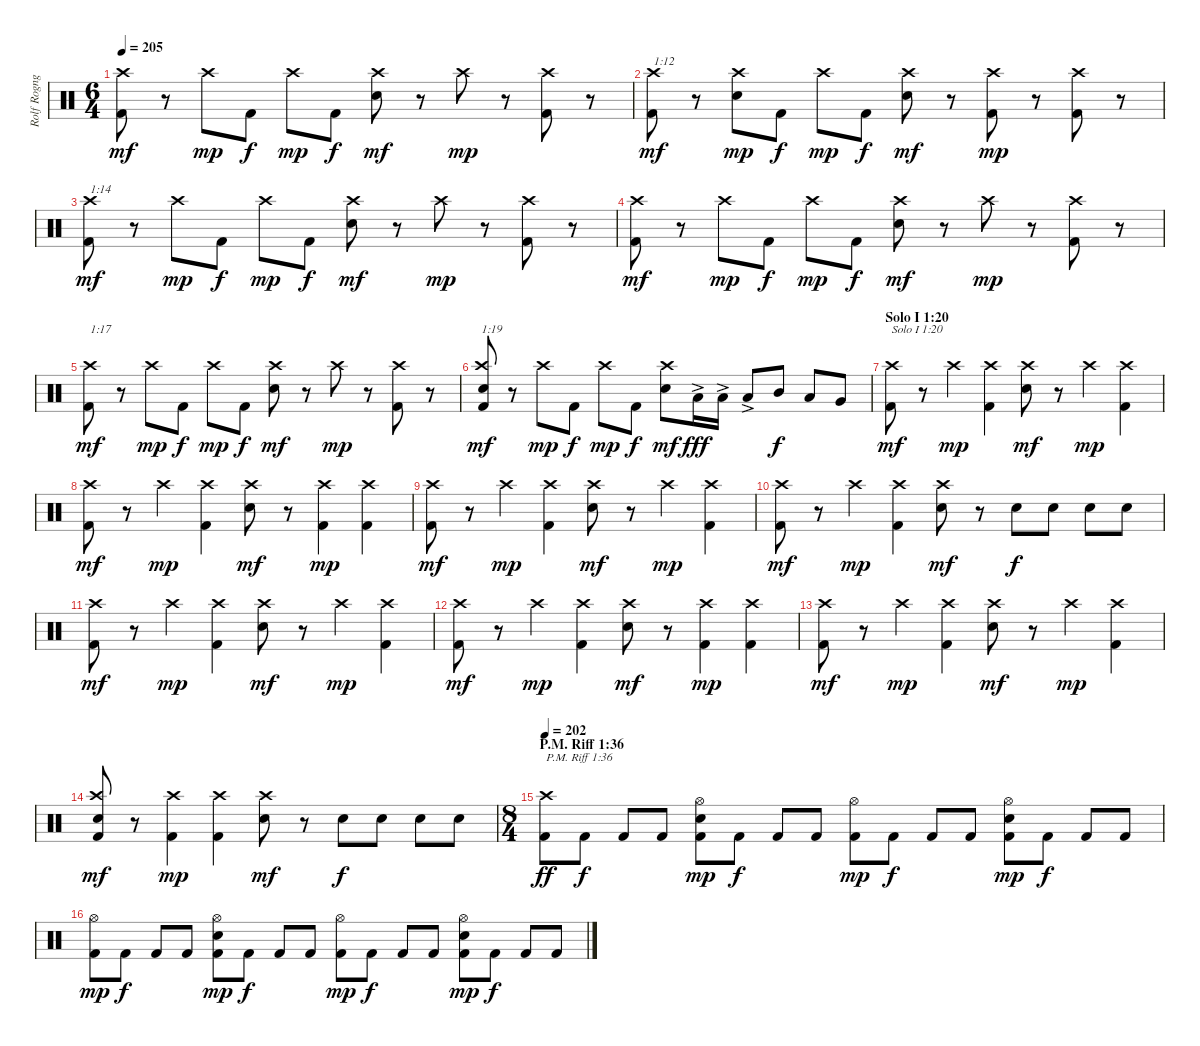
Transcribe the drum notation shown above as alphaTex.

\track ("Rolf Rognguf Hansen" "Rolf Rogng") {instrument percussion}
\staff {score}
\articulation defaults
\ts (6 4)
\tempo 205
\clef neutral
\ks c
("Kick (hit) 2" "Crash high (hit)").8{dy mf} r.8 "Crash high (hit)".8{dy mp} "Kick (hit) 2".8{dy f} "Crash high (hit)".8{dy mp} "Kick (hit) 2".8{dy f} ("Electric Snare (hit)" "Crash high (hit)").8{dy mf} r.8 "Crash high (hit)".8{dy mp} r.8 ("Kick (hit) 2" "Crash high (hit)").8 r.8 |
("Kick (hit) 2" "Crash high (hit)").8{txt "1:12" dy mf} r.8 ("Electric Snare (hit)" "Crash high (hit)").8{dy mp} "Kick (hit) 2".8{dy f} "Crash high (hit)".8{dy mp} "Kick (hit) 2".8{dy f} ("Electric Snare (hit)" "Crash high (hit)").8{dy mf} r.8 ("Kick (hit) 2" "Crash high (hit)").8{dy mp} r.8 ("Kick (hit) 2" "Crash high (hit)").8 r.8 |
("Kick (hit) 2" "Crash high (hit)").8{txt "1:14" dy mf} r.8 "Crash high (hit)".8{dy mp} "Kick (hit) 2".8{dy f} "Crash high (hit)".8{dy mp} "Kick (hit) 2".8{dy f} ("Electric Snare (hit)" "Crash high (hit)").8{dy mf} r.8 "Crash high (hit)".8{dy mp} r.8 ("Kick (hit) 2" "Crash high (hit)").8 r.8 |
("Kick (hit) 2" "Crash high (hit)").8{dy mf} r.8 "Crash high (hit)".8{dy mp} "Kick (hit) 2".8{dy f} "Crash high (hit)".8{dy mp} "Kick (hit) 2".8{dy f} ("Electric Snare (hit)" "Crash high (hit)").8{dy mf} r.8 "Crash high (hit)".8{dy mp} r.8 ("Kick (hit) 2" "Crash high (hit)").8 r.8 |
("Kick (hit) 2" "Crash high (hit)").8{txt "1:17" dy mf} r.8 "Crash high (hit)".8{dy mp} "Kick (hit) 2".8{dy f} "Crash high (hit)".8{dy mp} "Kick (hit) 2".8{dy f} ("Electric Snare (hit)" "Crash high (hit)").8{dy mf} r.8 "Crash high (hit)".8{dy mp} r.8 ("Kick (hit) 2" "Crash high (hit)").8 r.8 |
("Kick (hit) 2" "Electric Snare (hit)" "Crash high (hit)").8{txt "1:19" dy mf} r.8 "Crash high (hit)".8{dy mp} "Kick (hit) 2".8{dy f} "Crash high (hit)".8{dy mp} "Kick (hit) 2".8{dy f} ("Electric Snare (hit)" "Crash high (hit)").8{dy mf} "Low Tom (hit)"{ac}.16{dy fff} "Low Tom (hit)"{ac}.16 "Low Tom (hit)"{ac}.8 "Mid Tom (hit)".8{dy f} "Low Tom (hit)".8 "Very Low Tom (hit)".8 |
\section ("" "Solo I 1:20")
("Kick (hit) 2" "Crash high (hit)").8{txt "Solo I 1:20" dy mf} r.8 "Crash high (hit)".4{dy mp} ("Kick (hit) 2" "Crash high (hit)").4 ("Electric Snare (hit)" "Crash high (hit)").8{dy mf} r.8 "Crash high (hit)".4{dy mp} ("Kick (hit) 2" "Crash high (hit)").4 |
("Kick (hit) 2" "Crash high (hit)").8{dy mf} r.8 "Crash high (hit)".4{dy mp} ("Kick (hit) 2" "Crash high (hit)").4 ("Electric Snare (hit)" "Crash high (hit)").8{dy mf} r.8 ("Kick (hit) 2" "Crash high (hit)").4{dy mp} ("Kick (hit) 2" "Crash high (hit)").4 |
("Kick (hit) 2" "Crash high (hit)").8{dy mf} r.8 "Crash high (hit)".4{dy mp} ("Kick (hit) 2" "Crash high (hit)").4 ("Electric Snare (hit)" "Crash high (hit)").8{dy mf} r.8 "Crash high (hit)".4{dy mp} ("Kick (hit) 2" "Crash high (hit)").4 |
("Kick (hit) 2" "Crash high (hit)").8{dy mf} r.8 "Crash high (hit)".4{dy mp} ("Kick (hit) 2" "Crash high (hit)").4 ("Electric Snare (hit)" "Crash high (hit)").8{dy mf} r.8 "Electric Snare (hit)".8{dy f} "Electric Snare (hit)".8 "Electric Snare (hit)".8 "Electric Snare (hit)".8 |
("Kick (hit) 2" "Crash high (hit)").8{dy mf} r.8 "Crash high (hit)".4{dy mp} ("Kick (hit) 2" "Crash high (hit)").4 ("Electric Snare (hit)" "Crash high (hit)").8{dy mf} r.8 "Crash high (hit)".4{dy mp} ("Kick (hit) 2" "Crash high (hit)").4 |
("Kick (hit) 2" "Crash high (hit)").8{dy mf} r.8 "Crash high (hit)".4{dy mp} ("Kick (hit) 2" "Crash high (hit)").4 ("Electric Snare (hit)" "Crash high (hit)").8{dy mf} r.8 ("Kick (hit) 2" "Crash high (hit)").4{dy mp} ("Kick (hit) 2" "Crash high (hit)").4 |
("Kick (hit) 2" "Crash high (hit)").8{dy mf} r.8 "Crash high (hit)".4{dy mp} ("Kick (hit) 2" "Crash high (hit)").4 ("Electric Snare (hit)" "Crash high (hit)").8{dy mf} r.8 "Crash high (hit)".4{dy mp} ("Kick (hit) 2" "Crash high (hit)").4 |
("Kick (hit) 2" "Electric Snare (hit)" "Crash high (hit)").8{dy mf} r.8 ("Kick (hit) 2" "Crash high (hit)").4{dy mp} ("Kick (hit) 2" "Crash high (hit)").4 ("Electric Snare (hit)" "Crash high (hit)").8{dy mf} r.8 "Electric Snare (hit)".8{dy f} "Electric Snare (hit)".8 "Electric Snare (hit)".8 "Electric Snare (hit)".8 |
\ts (8 4)
\section ("" "P.M. Riff 1:36")
\tempo 202
("Kick (hit) 2" "Crash high (hit)").8{txt "P.M. Riff 1:36" dy ff} "Kick (hit) 2".8{dy f} "Kick (hit) 2".8 "Kick (hit) 2".8 ("Kick (hit) 2" "Electric Snare (hit)" "Hi-Hat (open)").8{dy mp} "Kick (hit) 2".8{dy f} "Kick (hit) 2".8 "Kick (hit) 2".8 ("Kick (hit) 2" "Hi-Hat (open)").8{dy mp} "Kick (hit) 2".8{dy f} "Kick (hit) 2".8 "Kick (hit) 2".8 ("Kick (hit) 2" "Electric Snare (hit)" "Hi-Hat (open)").8{dy mp} "Kick (hit) 2".8{dy f} "Kick (hit) 2".8 "Kick (hit) 2".8 |
("Kick (hit) 2" "Hi-Hat (open)").8{dy mp} "Kick (hit) 2".8{dy f} "Kick (hit) 2".8 "Kick (hit) 2".8 ("Kick (hit) 2" "Electric Snare (hit)" "Hi-Hat (open)").8{dy mp} "Kick (hit) 2".8{dy f} "Kick (hit) 2".8 "Kick (hit) 2".8 ("Kick (hit) 2" "Hi-Hat (open)").8{dy mp} "Kick (hit) 2".8{dy f} "Kick (hit) 2".8 "Kick (hit) 2".8 ("Kick (hit) 2" "Electric Snare (hit)" "Hi-Hat (open)").8{dy mp} "Kick (hit) 2".8{dy f} "Kick (hit) 2".8 "Kick (hit) 2".8
